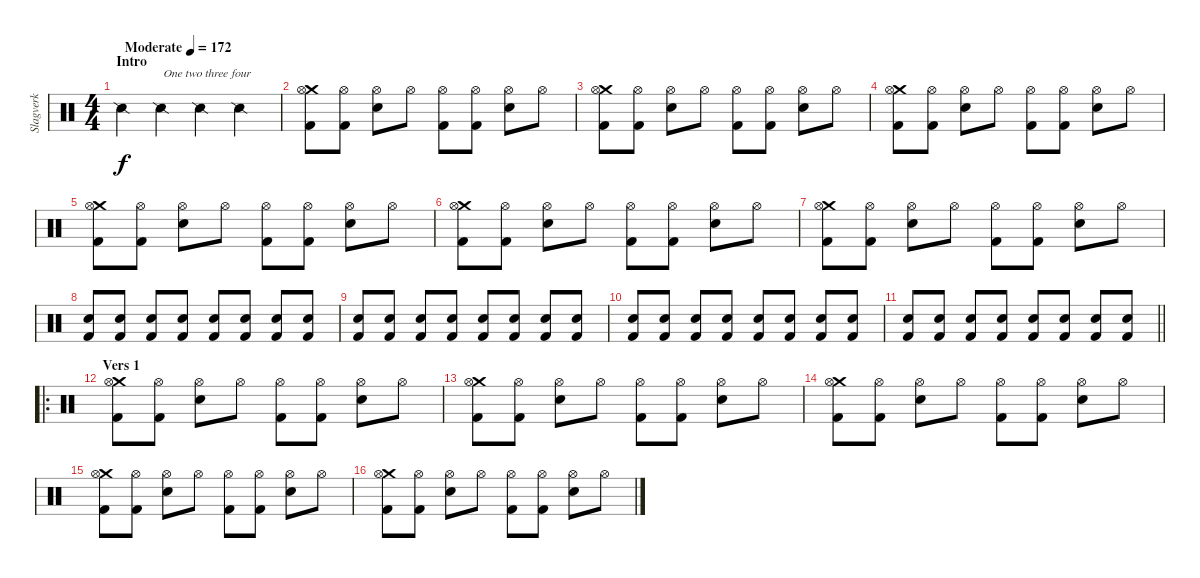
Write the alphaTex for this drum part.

\track ("Slagverk" "Slagverk") {instrument percussion}
\staff {score}
\articulation defaults
\ts (4 4)
\section ("" "Intro")
\tempo (172 "Moderate")
\clef neutral
\ks c "Snare (side stick) 2".4{dy f} "Snare (side stick) 2".4{txt "One two three four"} "Snare (side stick) 2".4 "Snare (side stick) 2".4
|
("Crash medium (hit)" "Kick (hit) 2" "Hi-Hat (open)").8 ("Kick (hit) 2" "Hi-Hat (open)").8 ("Snare (hit) 2" "Hi-Hat (open)").8 "Hi-Hat (open)".8 ("Kick (hit) 2" "Hi-Hat (open)").8 ("Kick (hit) 2" "Hi-Hat (open)").8 ("Snare (hit) 2" "Hi-Hat (open)").8 "Hi-Hat (open)".8 |
("Crash medium (hit)" "Kick (hit) 2" "Hi-Hat (open)").8 ("Kick (hit) 2" "Hi-Hat (open)").8 ("Snare (hit) 2" "Hi-Hat (open)").8 "Hi-Hat (open)".8 ("Kick (hit) 2" "Hi-Hat (open)").8 ("Kick (hit) 2" "Hi-Hat (open)").8 ("Snare (hit) 2" "Hi-Hat (open)").8 "Hi-Hat (open)".8 |
("Crash medium (hit)" "Kick (hit) 2" "Hi-Hat (open)").8 ("Kick (hit) 2" "Hi-Hat (open)").8 ("Snare (hit) 2" "Hi-Hat (open)").8 "Hi-Hat (open)".8 ("Kick (hit) 2" "Hi-Hat (open)").8 ("Kick (hit) 2" "Hi-Hat (open)").8 ("Snare (hit) 2" "Hi-Hat (open)").8 "Hi-Hat (open)".8 |
("Crash medium (hit)" "Kick (hit) 2" "Hi-Hat (open)").8 ("Kick (hit) 2" "Hi-Hat (open)").8 ("Snare (hit) 2" "Hi-Hat (open)").8 "Hi-Hat (open)".8 ("Kick (hit) 2" "Hi-Hat (open)").8 ("Kick (hit) 2" "Hi-Hat (open)").8 ("Snare (hit) 2" "Hi-Hat (open)").8 "Hi-Hat (open)".8 |
("Crash medium (hit)" "Kick (hit) 2" "Hi-Hat (open)").8 ("Kick (hit) 2" "Hi-Hat (open)").8 ("Snare (hit) 2" "Hi-Hat (open)").8 "Hi-Hat (open)".8 ("Kick (hit) 2" "Hi-Hat (open)").8 ("Kick (hit) 2" "Hi-Hat (open)").8 ("Snare (hit) 2" "Hi-Hat (open)").8 "Hi-Hat (open)".8 |
("Crash medium (hit)" "Kick (hit) 2" "Hi-Hat (open)").8 ("Kick (hit) 2" "Hi-Hat (open)").8 ("Snare (hit) 2" "Hi-Hat (open)").8 "Hi-Hat (open)".8 ("Kick (hit) 2" "Hi-Hat (open)").8 ("Kick (hit) 2" "Hi-Hat (open)").8 ("Snare (hit) 2" "Hi-Hat (open)").8 "Hi-Hat (open)".8 |
("Snare (hit) 2" "Kick (hit) 2").8 ("Snare (hit) 2" "Kick (hit) 2").8 ("Snare (hit) 2" "Kick (hit) 2").8 ("Snare (hit) 2" "Kick (hit) 2").8 ("Snare (hit) 2" "Kick (hit) 2").8 ("Snare (hit) 2" "Kick (hit) 2").8 ("Snare (hit) 2" "Kick (hit) 2").8 ("Snare (hit) 2" "Kick (hit) 2").8 |
("Snare (hit) 2" "Kick (hit) 2").8 ("Snare (hit) 2" "Kick (hit) 2").8 ("Snare (hit) 2" "Kick (hit) 2").8 ("Snare (hit) 2" "Kick (hit) 2").8 ("Snare (hit) 2" "Kick (hit) 2").8 ("Snare (hit) 2" "Kick (hit) 2").8 ("Snare (hit) 2" "Kick (hit) 2").8 ("Snare (hit) 2" "Kick (hit) 2").8 |
("Snare (hit) 2" "Kick (hit) 2").8 ("Snare (hit) 2" "Kick (hit) 2").8 ("Snare (hit) 2" "Kick (hit) 2").8 ("Snare (hit) 2" "Kick (hit) 2").8 ("Snare (hit) 2" "Kick (hit) 2").8 ("Snare (hit) 2" "Kick (hit) 2").8 ("Snare (hit) 2" "Kick (hit) 2").8 ("Snare (hit) 2" "Kick (hit) 2").8 |
\barLineRight lightlight
("Snare (hit) 2" "Kick (hit) 2").8 ("Snare (hit) 2" "Kick (hit) 2").8 ("Snare (hit) 2" "Kick (hit) 2").8 ("Snare (hit) 2" "Kick (hit) 2").8 ("Snare (hit) 2" "Kick (hit) 2").8 ("Snare (hit) 2" "Kick (hit) 2").8 ("Snare (hit) 2" "Kick (hit) 2").8 ("Snare (hit) 2" "Kick (hit) 2").8 |
\ro
\section ("" "Vers 1")
("Crash medium (hit)" "Kick (hit) 2" "Hi-Hat (open)").8 ("Kick (hit) 2" "Hi-Hat (open)").8 ("Snare (hit) 2" "Hi-Hat (open)").8 "Hi-Hat (open)".8 ("Kick (hit) 2" "Hi-Hat (open)").8 ("Kick (hit) 2" "Hi-Hat (open)").8 ("Snare (hit) 2" "Hi-Hat (open)").8 "Hi-Hat (open)".8 |
("Crash medium (hit)" "Kick (hit) 2" "Hi-Hat (open)").8 ("Kick (hit) 2" "Hi-Hat (open)").8 ("Snare (hit) 2" "Hi-Hat (open)").8 "Hi-Hat (open)".8 ("Kick (hit) 2" "Hi-Hat (open)").8 ("Kick (hit) 2" "Hi-Hat (open)").8 ("Snare (hit) 2" "Hi-Hat (open)").8 "Hi-Hat (open)".8 |
("Crash medium (hit)" "Kick (hit) 2" "Hi-Hat (open)").8 ("Kick (hit) 2" "Hi-Hat (open)").8 ("Snare (hit) 2" "Hi-Hat (open)").8 "Hi-Hat (open)".8 ("Kick (hit) 2" "Hi-Hat (open)").8 ("Kick (hit) 2" "Hi-Hat (open)").8 ("Snare (hit) 2" "Hi-Hat (open)").8 "Hi-Hat (open)".8 |
("Crash medium (hit)" "Kick (hit) 2" "Hi-Hat (open)").8 ("Kick (hit) 2" "Hi-Hat (open)").8 ("Snare (hit) 2" "Hi-Hat (open)").8 "Hi-Hat (open)".8 ("Kick (hit) 2" "Hi-Hat (open)").8 ("Kick (hit) 2" "Hi-Hat (open)").8 ("Snare (hit) 2" "Hi-Hat (open)").8 "Hi-Hat (open)".8 |
("Crash medium (hit)" "Kick (hit) 2" "Hi-Hat (open)").8 ("Kick (hit) 2" "Hi-Hat (open)").8 ("Snare (hit) 2" "Hi-Hat (open)").8 "Hi-Hat (open)".8 ("Kick (hit) 2" "Hi-Hat (open)").8 ("Kick (hit) 2" "Hi-Hat (open)").8 ("Snare (hit) 2" "Hi-Hat (open)").8 "Hi-Hat (open)".8
